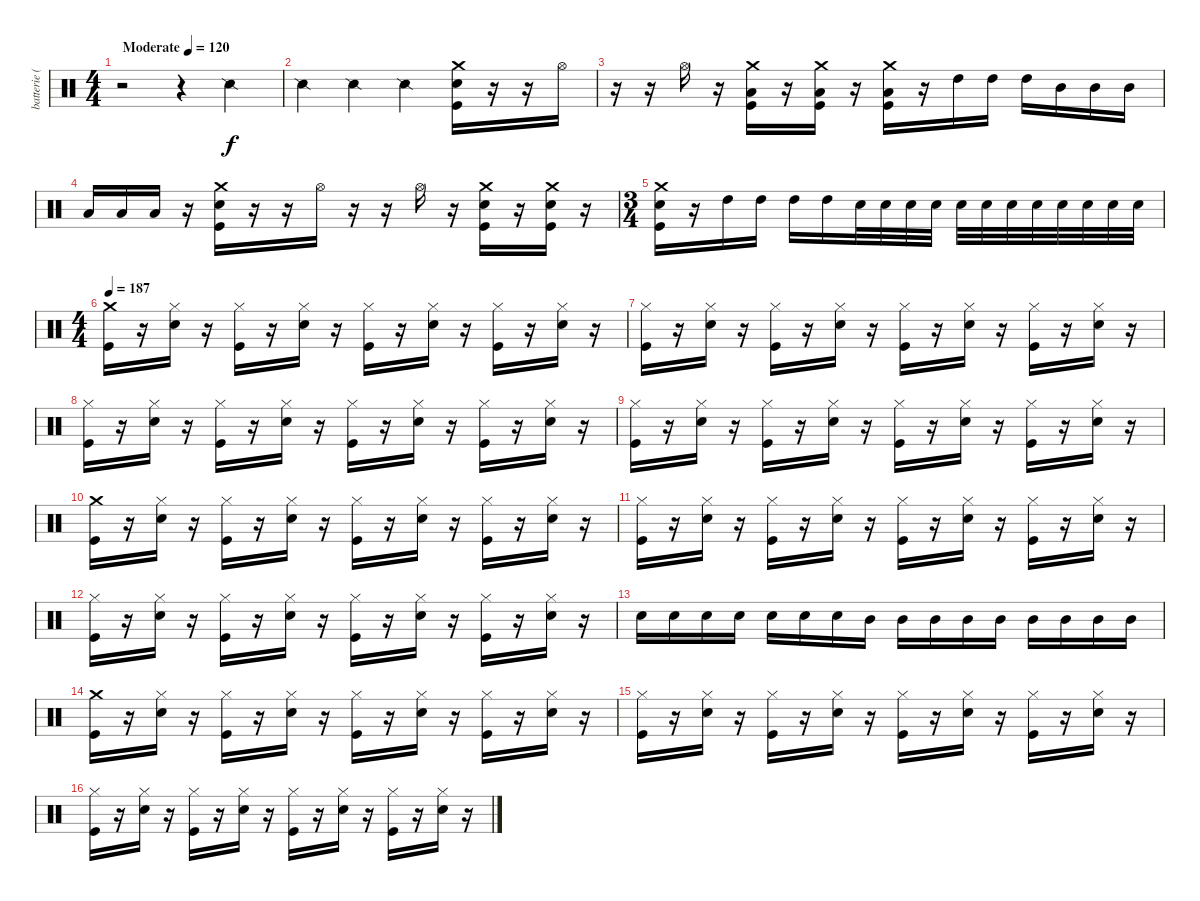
\track ("batterie ( Mike ) " "batterie (") {instrument percussion}
\staff {score}
\articulation defaults
\ts (4 4)
\tempo (120 "Moderate")
\clef neutral
\ks c
r.2{dy f} r.4 "Snare (side stick) 2".4 |
"Snare (side stick) 2".4 "Snare (side stick) 2".4 "Snare (side stick) 2".4 ("Crash medium (hit)" "Snare (hit) 2" "Kick (hit)").16 r.16 r.16 "Hi-Hat (open)".16 |
r.16 r.16 "Hi-Hat (open)".16 r.16 ("Crash medium (hit)" "Low Floor Tom (hit)" "Kick (hit)").16 r.16 ("Crash medium (hit)" "Low Floor Tom (hit)" "Kick (hit)").16 r.16 ("Crash medium (hit)" "Low Floor Tom (hit)" "Kick (hit)").16 r.16 "High Tom (hit)".16 "High Tom (hit)".16 "High Tom (hit)".16 "Mid Tom (hit)".16 "Mid Tom (hit)".16 "Mid Tom (hit)".16 |
"Low Tom (hit)".16 "Low Tom (hit)".16 "Low Tom (hit)".16 r.16 ("Crash medium (hit)" "Snare (hit) 2" "Kick (hit)").16 r.16 r.16 "Hi-Hat (open)".16 r.16 r.16 "Hi-Hat (open)".16 r.16 ("Crash medium (hit)" "Snare (hit) 2" "Kick (hit)").16 r.16 ("Crash medium (hit)" "Snare (hit) 2" "Kick (hit)").16 r.16 |
\ts (3 4)
("Crash medium (hit)" "Snare (hit) 2" "Kick (hit)").16 r.16 "High Tom (hit)".16 "High Tom (hit)".16 "High Tom (hit)".16 "High Tom (hit)".16 "Snare (hit) 2".32 "Snare (hit) 2".32 "Snare (hit) 2".32 "Snare (hit) 2".32 "Snare (hit) 2".32 "Snare (hit) 2".32 "Snare (hit) 2".32 "Snare (hit) 2".32 "Snare (hit) 2".32 "Snare (hit) 2".32 "Snare (hit) 2".32 "Snare (hit) 2".32 |
\ts (4 4)
\tempo 187
("Crash medium (hit)" "Kick (hit)").16 r.16 ("Hi-Hat (closed)" "Snare (hit) 2").16 r.16 ("Hi-Hat (closed)" "Kick (hit)").16 r.16 ("Hi-Hat (closed)" "Snare (hit) 2").16 r.16 ("Hi-Hat (closed)" "Kick (hit)").16 r.16 ("Hi-Hat (closed)" "Snare (hit) 2").16 r.16 ("Hi-Hat (closed)" "Kick (hit)").16 r.16 ("Hi-Hat (closed)" "Snare (hit) 2").16 r.16 |
("Hi-Hat (closed)" "Kick (hit)").16 r.16 ("Hi-Hat (closed)" "Snare (hit) 2").16 r.16 ("Hi-Hat (closed)" "Kick (hit)").16 r.16 ("Hi-Hat (closed)" "Snare (hit) 2").16 r.16 ("Hi-Hat (closed)" "Kick (hit)").16 r.16 ("Hi-Hat (closed)" "Snare (hit) 2").16 r.16 ("Hi-Hat (closed)" "Kick (hit)").16 r.16 ("Hi-Hat (closed)" "Snare (hit) 2").16 r.16 |
("Hi-Hat (closed)" "Kick (hit)").16 r.16 ("Hi-Hat (closed)" "Snare (hit) 2").16 r.16 ("Hi-Hat (closed)" "Kick (hit)").16 r.16 ("Hi-Hat (closed)" "Snare (hit) 2").16 r.16 ("Hi-Hat (closed)" "Kick (hit)").16 r.16 ("Hi-Hat (closed)" "Snare (hit) 2").16 r.16 ("Hi-Hat (closed)" "Kick (hit)").16 r.16 ("Hi-Hat (closed)" "Snare (hit) 2").16 r.16 |
("Hi-Hat (closed)" "Kick (hit)").16 r.16 ("Hi-Hat (closed)" "Snare (hit) 2").16 r.16 ("Hi-Hat (closed)" "Kick (hit)").16 r.16 ("Hi-Hat (closed)" "Snare (hit) 2").16 r.16 ("Hi-Hat (closed)" "Kick (hit)").16 r.16 ("Hi-Hat (closed)" "Snare (hit) 2").16 r.16 ("Hi-Hat (closed)" "Kick (hit)").16 r.16 ("Hi-Hat (closed)" "Snare (hit) 2").16 r.16 |
("Crash medium (hit)" "Kick (hit)").16 r.16 ("Hi-Hat (closed)" "Snare (hit) 2").16 r.16 ("Hi-Hat (closed)" "Kick (hit)").16 r.16 ("Hi-Hat (closed)" "Snare (hit) 2").16 r.16 ("Hi-Hat (closed)" "Kick (hit)").16 r.16 ("Hi-Hat (closed)" "Snare (hit) 2").16 r.16 ("Hi-Hat (closed)" "Kick (hit)").16 r.16 ("Hi-Hat (closed)" "Snare (hit) 2").16 r.16 |
("Hi-Hat (closed)" "Kick (hit)").16 r.16 ("Hi-Hat (closed)" "Snare (hit) 2").16 r.16 ("Hi-Hat (closed)" "Kick (hit)").16 r.16 ("Hi-Hat (closed)" "Snare (hit) 2").16 r.16 ("Hi-Hat (closed)" "Kick (hit)").16 r.16 ("Hi-Hat (closed)" "Snare (hit) 2").16 r.16 ("Hi-Hat (closed)" "Kick (hit)").16 r.16 ("Hi-Hat (closed)" "Snare (hit) 2").16 r.16 |
("Hi-Hat (closed)" "Kick (hit)").16 r.16 ("Hi-Hat (closed)" "Snare (hit) 2").16 r.16 ("Hi-Hat (closed)" "Kick (hit)").16 r.16 ("Hi-Hat (closed)" "Snare (hit) 2").16 r.16 ("Hi-Hat (closed)" "Kick (hit)").16 r.16 ("Hi-Hat (closed)" "Snare (hit) 2").16 r.16 ("Hi-Hat (closed)" "Kick (hit)").16 r.16 ("Hi-Hat (closed)" "Snare (hit) 2").16 r.16 |
"Snare (hit) 2".16 "Snare (hit) 2".16 "Snare (hit) 2".16 "Snare (hit) 2".16 "Snare (hit) 2".16 "Snare (hit) 2".16 "Snare (hit) 2".16 "Mid Tom (hit)".16 "Mid Tom (hit)".16 "Mid Tom (hit)".16 "Mid Tom (hit)".16 "Mid Tom (hit)".16 "Mid Tom (hit)".16 "Mid Tom (hit)".16 "Mid Tom (hit)".16 "Mid Tom (hit)".16 |
("Crash medium (hit)" "Kick (hit)").16 r.16 ("Hi-Hat (closed)" "Snare (hit) 2").16 r.16 ("Hi-Hat (closed)" "Kick (hit)").16 r.16 ("Hi-Hat (closed)" "Snare (hit) 2").16 r.16 ("Hi-Hat (closed)" "Kick (hit)").16 r.16 ("Hi-Hat (closed)" "Snare (hit) 2").16 r.16 ("Hi-Hat (closed)" "Kick (hit)").16 r.16 ("Hi-Hat (closed)" "Snare (hit) 2").16 r.16 |
("Hi-Hat (closed)" "Kick (hit)").16 r.16 ("Hi-Hat (closed)" "Snare (hit) 2").16 r.16 ("Hi-Hat (closed)" "Kick (hit)").16 r.16 ("Hi-Hat (closed)" "Snare (hit) 2").16 r.16 ("Hi-Hat (closed)" "Kick (hit)").16 r.16 ("Hi-Hat (closed)" "Snare (hit) 2").16 r.16 ("Hi-Hat (closed)" "Kick (hit)").16 r.16 ("Hi-Hat (closed)" "Snare (hit) 2").16 r.16 |
("Hi-Hat (closed)" "Kick (hit)").16 r.16 ("Hi-Hat (closed)" "Snare (hit) 2").16 r.16 ("Hi-Hat (closed)" "Kick (hit)").16 r.16 ("Hi-Hat (closed)" "Snare (hit) 2").16 r.16 ("Hi-Hat (closed)" "Kick (hit)").16 r.16 ("Hi-Hat (closed)" "Snare (hit) 2").16 r.16 ("Hi-Hat (closed)" "Kick (hit)").16 r.16 ("Hi-Hat (closed)" "Snare (hit) 2").16 r.16
